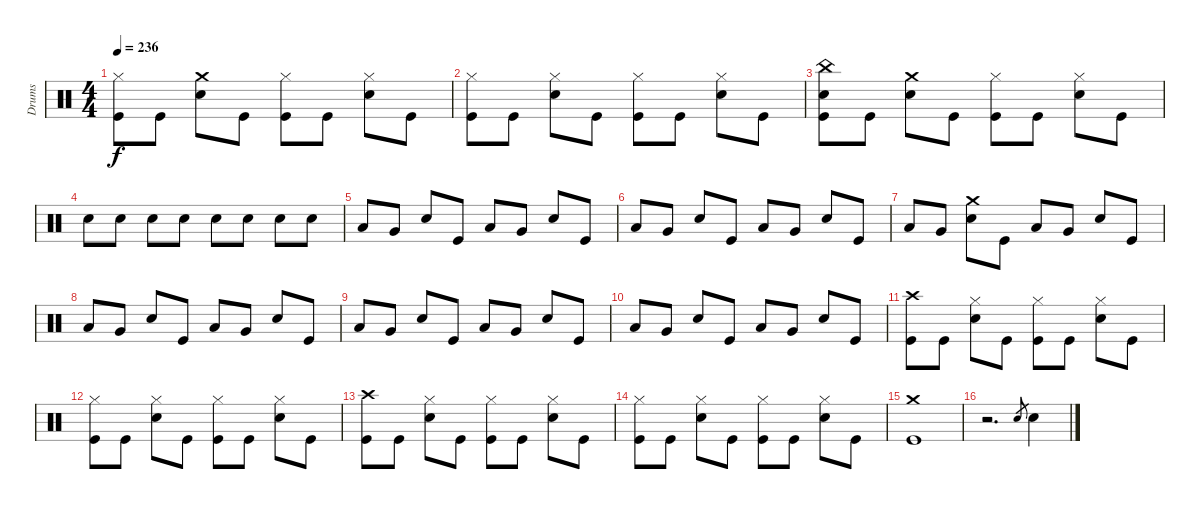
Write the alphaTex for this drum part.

\track ("Drums" "Drums") {instrument percussion}
\staff {score}
\articulation defaults
\ts (4 4)
\tempo 236
\clef neutral
\ks c
("Hi-Hat (closed)" "Kick (hit)").8{dy f} "Kick (hit)".8 ("Crash medium (hit)" "Snare (hit) 2").8 "Kick (hit)".8 ("Hi-Hat (closed)" "Kick (hit)").8 "Kick (hit)".8 ("Hi-Hat (closed)" "Snare (hit) 2").8 "Kick (hit)".8 |
("Hi-Hat (closed)" "Kick (hit)").8 "Kick (hit)".8 ("Hi-Hat (closed)" "Snare (hit) 2").8 "Kick (hit)".8 ("Hi-Hat (closed)" "Kick (hit)").8 "Kick (hit)".8 ("Hi-Hat (closed)" "Snare (hit) 2").8 "Kick (hit)".8 |
("China (hit)" "Kick (hit)" "Snare (hit) 2").8 "Kick (hit)".8 ("Crash medium (hit)" "Snare (hit) 2").8 "Kick (hit)".8 ("Hi-Hat (closed)" "Kick (hit)").8 "Kick (hit)".8 ("Hi-Hat (closed)" "Snare (hit) 2").8 "Kick (hit)".8 |
"Snare (hit) 2".8 "Snare (hit) 2".8 "Snare (hit) 2".8 "Snare (hit) 2".8 "Snare (hit) 2".8 "Snare (hit) 2".8 "Snare (hit) 2".8 "Snare (hit) 2".8 |
"Low Tom (hit)".8 "Very Low Tom (hit)".8 "Snare (hit) 2".8 "Kick (hit)".8 "Low Tom (hit)".8 "Very Low Tom (hit)".8 "Snare (hit) 2".8 "Kick (hit)".8 |
"Low Tom (hit)".8 "Very Low Tom (hit)".8 "Snare (hit) 2".8 "Kick (hit)".8 "Low Tom (hit)".8 "Very Low Tom (hit)".8 "Snare (hit) 2".8 "Kick (hit)".8 |
"Low Tom (hit)".8 "Very Low Tom (hit)".8 ("Crash medium (hit)" "Snare (hit) 2").8 "Kick (hit)".8 "Low Tom (hit)".8 "Very Low Tom (hit)".8 "Snare (hit) 2".8 "Kick (hit)".8 |
"Low Tom (hit)".8 "Very Low Tom (hit)".8 "Snare (hit) 2".8 "Kick (hit)".8 "Low Tom (hit)".8 "Very Low Tom (hit)".8 "Snare (hit) 2".8 "Kick (hit)".8 |
"Low Tom (hit)".8 "Very Low Tom (hit)".8 "Snare (hit) 2".8 "Kick (hit)".8 "Low Tom (hit)".8 "Very Low Tom (hit)".8 "Snare (hit) 2".8 "Kick (hit)".8 |
"Low Tom (hit)".8 "Very Low Tom (hit)".8 "Snare (hit) 2".8 "Kick (hit)".8 "Low Tom (hit)".8 "Very Low Tom (hit)".8 "Snare (hit) 2".8 "Kick (hit)".8 |
("Crash high (hit)" "Kick (hit)").8 "Kick (hit)".8 ("Hi-Hat (closed)" "Snare (hit) 2").8 "Kick (hit)".8 ("Hi-Hat (closed)" "Kick (hit)").8 "Kick (hit)".8 ("Hi-Hat (closed)" "Snare (hit) 2").8 "Kick (hit)".8 |
("Hi-Hat (closed)" "Kick (hit)").8 "Kick (hit)".8 ("Hi-Hat (closed)" "Snare (hit) 2").8 "Kick (hit)".8 ("Hi-Hat (closed)" "Kick (hit)").8 "Kick (hit)".8 ("Hi-Hat (closed)" "Snare (hit) 2").8 "Kick (hit)".8 |
("Crash high (hit)" "Kick (hit)").8 "Kick (hit)".8 ("Hi-Hat (closed)" "Snare (hit) 2").8 "Kick (hit)".8 ("Hi-Hat (closed)" "Kick (hit)").8 "Kick (hit)".8 ("Hi-Hat (closed)" "Snare (hit) 2").8 "Kick (hit)".8 |
("Hi-Hat (closed)" "Kick (hit)").8 "Kick (hit)".8 ("Hi-Hat (closed)" "Snare (hit) 2").8 "Kick (hit)".8 ("Hi-Hat (closed)" "Kick (hit)").8 "Kick (hit)".8 ("Hi-Hat (closed)" "Snare (hit) 2").8 "Kick (hit)".8 |
("Crash medium (hit)" "Kick (hit)").1 |
r.2{d} "Snare (hit) 2".8{gr} "Snare (hit) 2".4
